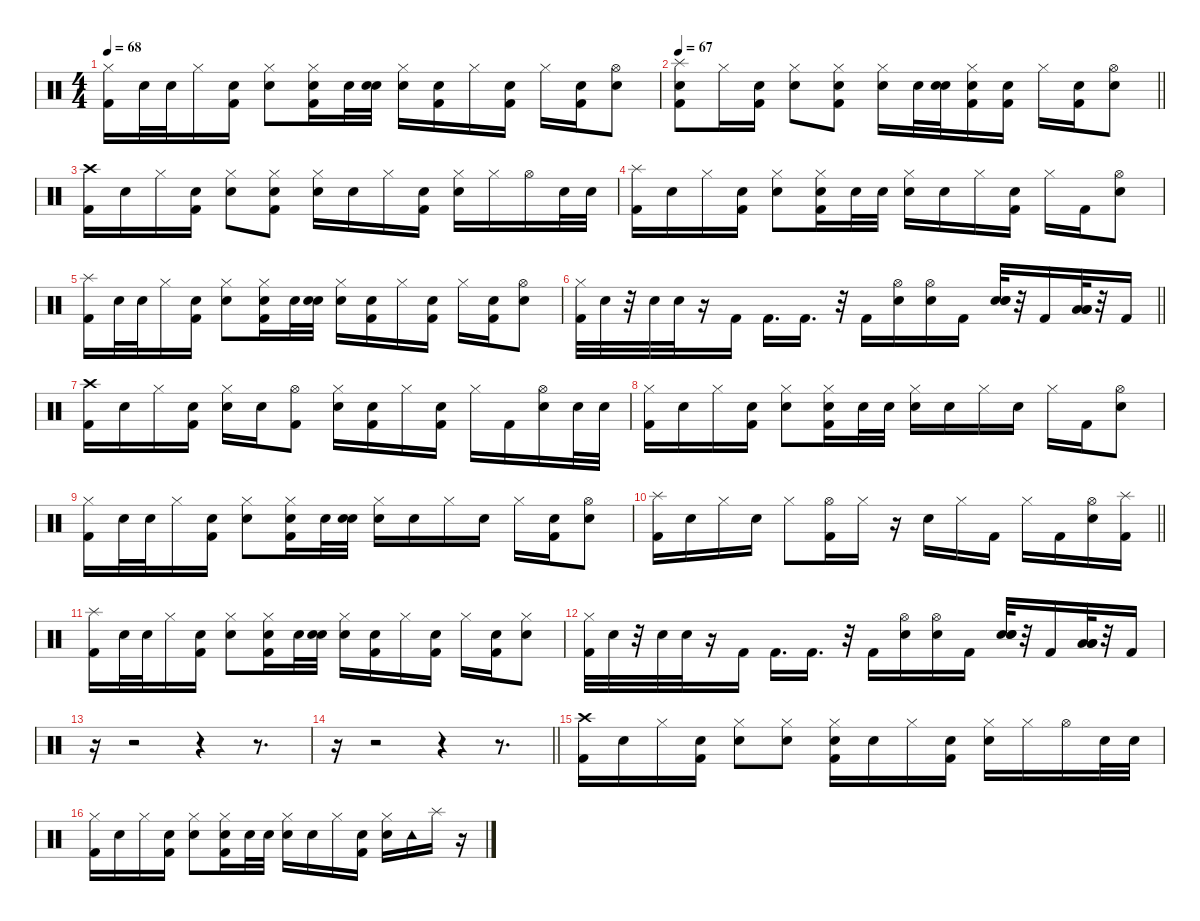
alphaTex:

\defaultSystemsLayout 4
\hideDynamics
\bracketExtendMode nobrackets
\singleTrackTrackNamePolicy hidden
\multiTrackTrackNamePolicy hidden
\firstSystemTrackNameMode fullname
\otherSystemsTrackNameOrientation horizontal
\track ("Drums" "drm.") {instrument percussion}
\staff {score}
\articulation defaults
\ts (4 4)
\tempo 68
\clef neutral
\ks c
("Hi-Hat (closed)" "Kick (hit) 2").16{dy f beam Down} "Snare (hit) 2".32{dy p beam Down} "Snare (hit) 2".32{beam Down} "Hi-Hat (closed)".16{dy f beam Down} ("Kick (hit) 2" "Snare (hit) 2").16{beam Down} ("Hi-Hat (closed)" "Snare (hit) 2").8{beam Down} ("Hi-Hat (closed)" "Kick (hit) 2" "Snare (hit) 2").16{beam Down} "Snare (hit) 2".32{dy p beam Down} ("Snare (hit) 2" "Snare (hit) 2").32{beam Down} ("Hi-Hat (closed)" "Snare (hit) 2").16{dy f beam Down} ("Kick (hit) 2" "Snare (hit) 2").16{beam Down} "Hi-Hat (closed)".16{beam Down} ("Kick (hit) 2" "Snare (hit) 2").16{beam Down} "Hi-Hat (closed)".16{beam Down} ("Kick (hit) 2" "Snare (hit) 2").16{beam Down} ("Hi-Hat (open)" "Snare (hit) 2").8{beam Down} |
\tempo 67
\barLineRight lightlight
("Kick (hit) 2" "Snare (hit) 2" "Splash (hit)").8{beam Down} "Hi-Hat (closed)".16{beam Down} ("Kick (hit) 2" "Snare (hit) 2").16{beam Down} ("Hi-Hat (closed)" "Snare (hit) 2").8{beam Down} ("Hi-Hat (closed)" "Kick (hit) 2" "Snare (hit) 2").8{beam Down} ("Hi-Hat (closed)" "Snare (hit) 2").16{beam Down} "Snare (hit) 2".32{dy p beam Down} ("Snare (hit) 2" "Snare (hit) 2").32{beam Down} ("Hi-Hat (closed)" "Kick (hit) 2" "Snare (hit) 2").16{dy f beam Down} ("Kick (hit) 2" "Snare (hit) 2").16{beam Down} "Hi-Hat (closed)".16{beam Down} ("Kick (hit) 2" "Snare (hit) 2").16{beam Down} ("Hi-Hat (open)" "Snare (hit) 2").8{beam Down} |
("Kick (hit) 2" "Crash high (hit)").16{beam Down} "Snare (hit) 2".16{dy p beam Down} "Hi-Hat (closed)".16{dy f beam Down} ("Kick (hit) 2" "Snare (hit) 2").16{beam Down} ("Hi-Hat (closed)" "Snare (hit) 2").8{beam Down} ("Hi-Hat (closed)" "Snare (hit) 2" "Kick (hit) 2").8{beam Down} ("Hi-Hat (closed)" "Snare (hit) 2").16{beam Down} "Snare (hit) 2".16{beam Down} "Hi-Hat (closed)".16{beam Down} ("Kick (hit) 2" "Snare (hit) 2").16{beam Down} ("Snare (hit) 2" "Hi-Hat (closed)").16{beam Down} "Hi-Hat (closed)".16{beam Down} "Hi-Hat (open)".16{beam Down} "Snare (hit) 2".32{dy p beam Down} "Snare (hit) 2".32{beam Down} |
("Kick (hit) 2" "Splash (hit)").16{dy f beam Down} "Snare (hit) 2".16{dy p beam Down} "Hi-Hat (closed)".16{dy f beam Down} ("Kick (hit) 2" "Snare (hit) 2").16{beam Down} ("Hi-Hat (closed)" "Snare (hit) 2").8{beam Down} ("Hi-Hat (closed)" "Kick (hit) 2" "Snare (hit) 2").16{beam Down} "Snare (hit) 2".32{dy p beam Down} "Snare (hit) 2".32{beam Down} ("Hi-Hat (closed)" "Snare (hit) 2").16{dy f beam Down} "Snare (hit) 2".16{beam Down} "Hi-Hat (closed)".16{beam Down} ("Kick (hit) 2" "Snare (hit) 2").16{beam Down} "Hi-Hat (closed)".16{beam Down} "Kick (hit) 2".16{beam Down} ("Snare (hit) 2" "Hi-Hat (open)").8{beam Down} |
("Kick (hit) 2" "Splash (hit)").16{beam Down} "Snare (hit) 2".32{dy p beam Down} "Snare (hit) 2".32{beam Down} "Hi-Hat (closed)".16{dy f beam Down} ("Kick (hit) 2" "Snare (hit) 2").16{beam Down} ("Hi-Hat (closed)" "Snare (hit) 2").8{beam Down} ("Hi-Hat (closed)" "Kick (hit) 2" "Snare (hit) 2").16{beam Down} "Snare (hit) 2".32{dy p beam Down} ("Snare (hit) 2" "Snare (hit) 2").32{beam Down} ("Hi-Hat (closed)" "Snare (hit) 2").16{dy f beam Down} ("Kick (hit) 2" "Snare (hit) 2").16{beam Down} "Hi-Hat (closed)".16{beam Down} ("Kick (hit) 2" "Snare (hit) 2").16{beam Down} "Hi-Hat (closed)".16{beam Down} ("Kick (hit) 2" "Snare (hit) 2").16{beam Down} ("Hi-Hat (open)" "Snare (hit) 2").8{beam Down} |
\barLineRight lightlight
("Kick (hit) 2" "Hi-Hat (closed)").32{beam Down} "Snare (hit) 2".32{beam Down} r.32{beam Down} "Snare (hit) 2".32{beam Down} "Snare (hit) 2".32{beam Down} r.16{beam Down} "Kick (hit) 2".16{beam Down} "Kick (hit) 2".16{d beam Down} "Kick (hit) 2".16{d beam Down} r.32{beam Down} "Kick (hit) 2".16{beam Down} ("Snare (hit) 2" "Hi-Hat (open)").16{beam Down} ("Snare (hit) 2" "Hi-Hat (open)").16{beam Down} "Kick (hit) 2".16{beam Down} ("Snare (hit) 2" "Snare (hit) 2" "Snare (hit) 2").32{beam Up} r.32{beam Up} "Kick (hit) 2".16{beam Up} ("Low Tom (hit)" "Low Tom (hit)" "Low Tom (hit)").32{beam Up} r.32{beam Up} "Kick (hit) 2".16{beam Up} |
("Crash high (hit)" "Kick (hit) 2").16{beam Down} "Snare (hit) 2".16{dy p beam Down} "Hi-Hat (closed)".16{dy f beam Down} ("Kick (hit) 2" "Snare (hit) 2").16{beam Down} ("Hi-Hat (closed)" "Snare (hit) 2").16{beam Down} "Snare (hit) 2".16{beam Down} ("Hi-Hat (open)" "Kick (hit) 2").8{beam Down} ("Hi-Hat (closed)" "Snare (hit) 2").16{beam Down} ("Snare (hit) 2" "Kick (hit) 2").16{dy p beam Down} "Hi-Hat (closed)".16{dy f beam Down} ("Kick (hit) 2" "Snare (hit) 2").16{beam Down} "Hi-Hat (closed)".16{beam Down} "Kick (hit) 2".16{beam Down} ("Hi-Hat (open)" "Snare (hit) 2").16{beam Down} "Snare (hit) 2".32{dy p beam Down} "Snare (hit) 2".32{beam Down} |
("Kick (hit) 2" "Hi-Hat (closed)").16{dy f beam Down} "Snare (hit) 2".16{dy p beam Down} "Hi-Hat (closed)".16{dy f beam Down} ("Kick (hit) 2" "Snare (hit) 2").16{beam Down} ("Hi-Hat (closed)" "Snare (hit) 2").8{beam Down} ("Hi-Hat (closed)" "Kick (hit) 2" "Snare (hit) 2").16{beam Down} "Snare (hit) 2".32{dy p beam Down} "Snare (hit) 2".32{beam Down} ("Hi-Hat (closed)" "Snare (hit) 2").16{dy f beam Down} "Snare (hit) 2".16{dy p beam Down} "Hi-Hat (closed)".16{dy f beam Down} "Snare (hit) 2".16{dy p beam Down} "Hi-Hat (closed)".16{dy f beam Down} "Kick (hit) 2".16{beam Down} ("Snare (hit) 2" "Hi-Hat (open)").8{beam Down} |
("Hi-Hat (closed)" "Kick (hit) 2").16{beam Down} "Snare (hit) 2".32{dy p beam Down} "Snare (hit) 2".32{beam Down} "Hi-Hat (closed)".16{dy f beam Down} ("Kick (hit) 2" "Snare (hit) 2").16{beam Down} ("Hi-Hat (closed)" "Snare (hit) 2").8{beam Down} ("Hi-Hat (closed)" "Kick (hit) 2" "Snare (hit) 2").16{beam Down} "Snare (hit) 2".32{dy p beam Down} ("Snare (hit) 2" "Snare (hit) 2").32{beam Down} ("Hi-Hat (closed)" "Snare (hit) 2").16{dy f beam Down} "Snare (hit) 2".16{dy p beam Down} "Hi-Hat (closed)".16{dy f beam Down} "Snare (hit) 2".16{dy p beam Down} "Hi-Hat (closed)".16{dy f beam Down} ("Kick (hit) 2" "Snare (hit) 2").16{beam Down} ("Hi-Hat (open)" "Snare (hit) 2").8{beam Down} |
\barLineRight lightlight
("Kick (hit) 2" "Splash (hit)").16{beam Down} "Snare (hit) 2".16{dy p beam Down} "Hi-Hat (closed)".16{dy f beam Down} "Snare (hit) 2".16{beam Down} "Hi-Hat (closed)".8{beam Down} ("Kick (hit) 2" "Hi-Hat (open)").16{beam Down} "Hi-Hat (closed)".16{beam Down} r.16{beam Down} "Snare (hit) 2".16{beam Down} "Hi-Hat (closed)".16{beam Down} "Kick (hit) 2".16{beam Down} "Hi-Hat (closed)".16{beam Down} "Kick (hit) 2".16{beam Down} ("Snare (hit) 2" "Hi-Hat (open)").16{beam Down} ("Kick (hit) 2" "Splash (hit)").16{beam Down} |
("Kick (hit) 2" "Splash (hit)").16{beam Down} "Snare (hit) 2".32{dy p beam Down} "Snare (hit) 2".32{beam Down} "Hi-Hat (closed)".16{dy f beam Down} ("Kick (hit) 2" "Snare (hit) 2").16{beam Down} ("Hi-Hat (closed)" "Snare (hit) 2").8{beam Down} ("Hi-Hat (closed)" "Kick (hit) 2" "Snare (hit) 2").16{beam Down} "Snare (hit) 2".32{dy p beam Down} ("Snare (hit) 2" "Snare (hit) 2").32{beam Down} ("Hi-Hat (closed)" "Snare (hit) 2").16{dy f beam Down} ("Kick (hit) 2" "Snare (hit) 2").16{beam Down} "Hi-Hat (closed)".16{beam Down} ("Kick (hit) 2" "Snare (hit) 2").16{beam Down} "Hi-Hat (closed)".16{beam Down} ("Kick (hit) 2" "Snare (hit) 2").16{beam Down} ("Snare (hit) 2" "Hi-Hat (closed)").8{beam Down} |
("Kick (hit) 2" "Hi-Hat (closed)").32{beam Down} "Snare (hit) 2".32{beam Down} r.32{beam Down} "Snare (hit) 2".32{beam Down} "Snare (hit) 2".32{beam Down} r.16{beam Down} "Kick (hit) 2".16{beam Down} "Kick (hit) 2".16{d beam Down} "Kick (hit) 2".16{d beam Down} r.32{beam Down} "Kick (hit) 2".16{beam Down} ("Snare (hit) 2" "Hi-Hat (open)").16{beam Down} ("Snare (hit) 2" "Hi-Hat (open)").16{beam Down} "Kick (hit) 2".16{beam Down} ("Snare (hit) 2" "Snare (hit) 2" "Snare (hit) 2").32{beam Up} r.32{beam Up} "Kick (hit) 2".16{beam Up} ("Low Tom (hit)" "Low Tom (hit)" "Low Tom (hit)").32{beam Up} r.32{beam Up} "Kick (hit) 2".16{beam Up} |
r.16{beam Down} r.2{beam Down} r.4{beam Down} r.8{d beam Down} |
\barLineRight lightlight
r.16{beam Down} r.2{beam Down} r.4{beam Down} r.8{d beam Down} |
("Crash high (hit)" "Kick (hit) 2").16{beam Down} "Snare (hit) 2".16{dy p beam Down} "Hi-Hat (closed)".16{dy f beam Down} ("Kick (hit) 2" "Snare (hit) 2").16{beam Down} ("Hi-Hat (closed)" "Snare (hit) 2").8{beam Down} ("Hi-Hat (closed)" "Snare (hit) 2").8{beam Down} ("Hi-Hat (closed)" "Kick (hit) 2" "Snare (hit) 2").16{beam Down} "Snare (hit) 2".16{dy p beam Down} "Hi-Hat (closed)".16{dy f beam Down} ("Kick (hit) 2" "Snare (hit) 2").16{beam Down} ("Snare (hit) 2" "Hi-Hat (closed)").16{beam Down} "Hi-Hat (closed)".16{beam Down} "Hi-Hat (open)".16{beam Down} "Snare (hit) 2".32{dy p beam Down} "Snare (hit) 2".32{beam Down} |
("Kick (hit) 2" "Hi-Hat (closed)").16{dy f beam Down} "Snare (hit) 2".16{dy p beam Down} "Hi-Hat (closed)".16{dy f beam Down} ("Kick (hit) 2" "Snare (hit) 2").16{beam Down} ("Hi-Hat (closed)" "Snare (hit) 2").8{beam Down} ("Hi-Hat (closed)" "Kick (hit) 2" "Snare (hit) 2").16{beam Down} "Snare (hit) 2".32{dy p beam Down} "Snare (hit) 2".32{beam Down} ("Hi-Hat (closed)" "Snare (hit) 2").16{dy f beam Down} "Snare (hit) 2".16{dy p beam Down} "Hi-Hat (closed)".16{dy f beam Down} ("Kick (hit) 2" "Snare (hit) 2").16{beam Down} ("Snare (hit) 2" "Hi-Hat (closed)").16{beam Down} "Tambourine (hit)".16{beam Down} "Splash (hit)".16{beam Down} r.16{beam Down}
